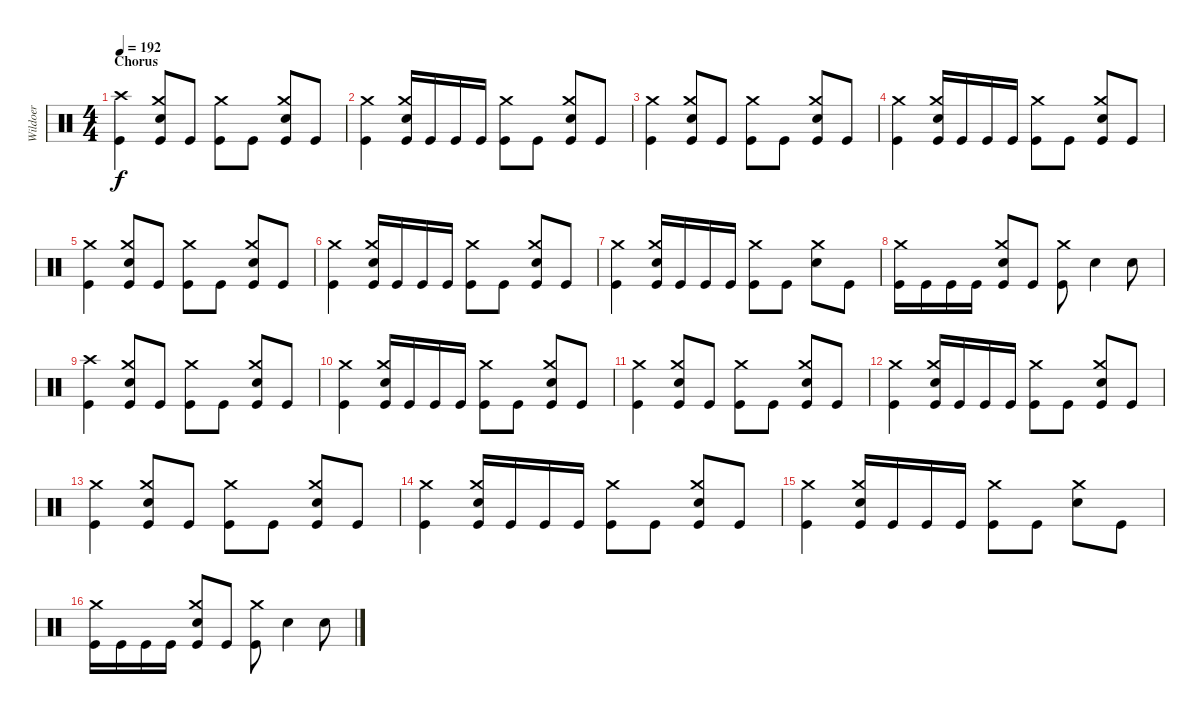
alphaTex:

\track ("Wildoer" "Wildoer") {instrument percussion}
\staff {score}
\articulation defaults
\ts (4 4)
\section ("" "Chorus")
\tempo 192
\clef neutral
\ks c
("Crash high (hit)" "Kick (hit)").4{dy f} ("Crash medium (hit)" "Electric Snare (hit)" "Kick (hit)").8 "Kick (hit)".8 ("Crash medium (hit)" "Kick (hit)").8 "Kick (hit)".8 ("Crash medium (hit)" "Electric Snare (hit)" "Kick (hit)").8 "Kick (hit)".8 |
("Crash medium (hit)" "Kick (hit)").4 ("Crash medium (hit)" "Electric Snare (hit)" "Kick (hit)").16 "Kick (hit)".16 "Kick (hit)".16 "Kick (hit)".16 ("Crash medium (hit)" "Kick (hit)").8 "Kick (hit)".8 ("Crash medium (hit)" "Electric Snare (hit)" "Kick (hit)").8 "Kick (hit)".8 |
("Crash medium (hit)" "Kick (hit)").4 ("Crash medium (hit)" "Electric Snare (hit)" "Kick (hit)").8 "Kick (hit)".8 ("Crash medium (hit)" "Kick (hit)").8 "Kick (hit)".8 ("Crash medium (hit)" "Electric Snare (hit)" "Kick (hit)").8 "Kick (hit)".8 |
("Crash medium (hit)" "Kick (hit)").4 ("Crash medium (hit)" "Electric Snare (hit)" "Kick (hit)").16 "Kick (hit)".16 "Kick (hit)".16 "Kick (hit)".16 ("Crash medium (hit)" "Kick (hit)").8 "Kick (hit)".8 ("Crash medium (hit)" "Electric Snare (hit)" "Kick (hit)").8 "Kick (hit)".8 |
("Crash medium (hit)" "Kick (hit)").4 ("Crash medium (hit)" "Electric Snare (hit)" "Kick (hit)").8 "Kick (hit)".8 ("Crash medium (hit)" "Kick (hit)").8 "Kick (hit)".8 ("Crash medium (hit)" "Electric Snare (hit)" "Kick (hit)").8 "Kick (hit)".8 |
("Crash medium (hit)" "Kick (hit)").4 ("Crash medium (hit)" "Electric Snare (hit)" "Kick (hit)").16 "Kick (hit)".16 "Kick (hit)".16 "Kick (hit)".16 ("Crash medium (hit)" "Kick (hit)").8 "Kick (hit)".8 ("Crash medium (hit)" "Electric Snare (hit)" "Kick (hit)").8 "Kick (hit)".8 |
("Crash medium (hit)" "Kick (hit)").4 ("Crash medium (hit)" "Electric Snare (hit)" "Kick (hit)").16 "Kick (hit)".16 "Kick (hit)".16 "Kick (hit)".16 ("Crash medium (hit)" "Kick (hit)").8 "Kick (hit)".8 ("Crash medium (hit)" "Electric Snare (hit)").8 "Kick (hit)".8 |
("Crash medium (hit)" "Kick (hit)").16 "Kick (hit)".16 "Kick (hit)".16 "Kick (hit)".16 ("Crash medium (hit)" "Electric Snare (hit)" "Kick (hit)").8 "Kick (hit)".8 ("Crash medium (hit)" "Kick (hit)").8 "Electric Snare (hit)".4 "Electric Snare (hit)".8 |
("Crash high (hit)" "Kick (hit)").4 ("Crash medium (hit)" "Electric Snare (hit)" "Kick (hit)").8 "Kick (hit)".8 ("Crash medium (hit)" "Kick (hit)").8 "Kick (hit)".8 ("Crash medium (hit)" "Electric Snare (hit)" "Kick (hit)").8 "Kick (hit)".8 |
("Crash medium (hit)" "Kick (hit)").4 ("Crash medium (hit)" "Electric Snare (hit)" "Kick (hit)").16 "Kick (hit)".16 "Kick (hit)".16 "Kick (hit)".16 ("Crash medium (hit)" "Kick (hit)").8 "Kick (hit)".8 ("Crash medium (hit)" "Electric Snare (hit)" "Kick (hit)").8 "Kick (hit)".8 |
("Crash medium (hit)" "Kick (hit)").4 ("Crash medium (hit)" "Electric Snare (hit)" "Kick (hit)").8 "Kick (hit)".8 ("Crash medium (hit)" "Kick (hit)").8 "Kick (hit)".8 ("Crash medium (hit)" "Electric Snare (hit)" "Kick (hit)").8 "Kick (hit)".8 |
("Crash medium (hit)" "Kick (hit)").4 ("Crash medium (hit)" "Electric Snare (hit)" "Kick (hit)").16 "Kick (hit)".16 "Kick (hit)".16 "Kick (hit)".16 ("Crash medium (hit)" "Kick (hit)").8 "Kick (hit)".8 ("Crash medium (hit)" "Electric Snare (hit)" "Kick (hit)").8 "Kick (hit)".8 |
("Crash medium (hit)" "Kick (hit)").4 ("Crash medium (hit)" "Electric Snare (hit)" "Kick (hit)").8 "Kick (hit)".8 ("Crash medium (hit)" "Kick (hit)").8 "Kick (hit)".8 ("Crash medium (hit)" "Electric Snare (hit)" "Kick (hit)").8 "Kick (hit)".8 |
("Crash medium (hit)" "Kick (hit)").4 ("Crash medium (hit)" "Electric Snare (hit)" "Kick (hit)").16 "Kick (hit)".16 "Kick (hit)".16 "Kick (hit)".16 ("Crash medium (hit)" "Kick (hit)").8 "Kick (hit)".8 ("Crash medium (hit)" "Electric Snare (hit)" "Kick (hit)").8 "Kick (hit)".8 |
("Crash medium (hit)" "Kick (hit)").4 ("Crash medium (hit)" "Electric Snare (hit)" "Kick (hit)").16 "Kick (hit)".16 "Kick (hit)".16 "Kick (hit)".16 ("Crash medium (hit)" "Kick (hit)").8 "Kick (hit)".8 ("Crash medium (hit)" "Electric Snare (hit)").8 "Kick (hit)".8 |
("Crash medium (hit)" "Kick (hit)").16 "Kick (hit)".16 "Kick (hit)".16 "Kick (hit)".16 ("Crash medium (hit)" "Electric Snare (hit)" "Kick (hit)").8 "Kick (hit)".8 ("Crash medium (hit)" "Kick (hit)").8 "Electric Snare (hit)".4 "Electric Snare (hit)".8
